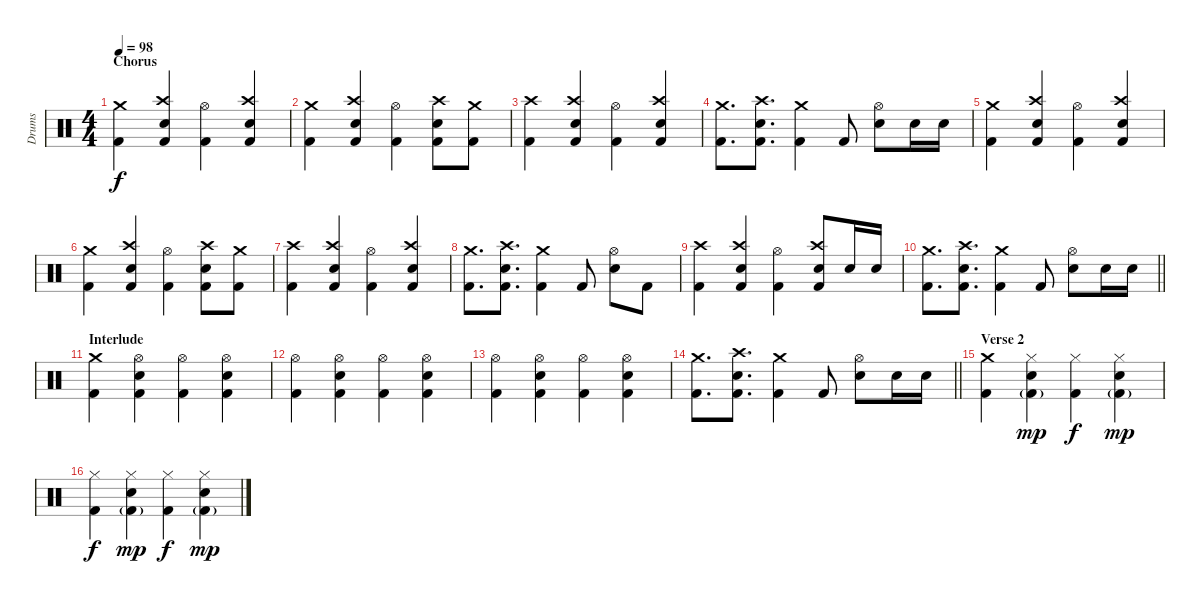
\track ("Drums" "Drums") {instrument percussion}
\staff {score}
\articulation defaults
\ts (4 4)
\section ("" "Chorus")
\tempo 98
\clef neutral
\ks c
("Crash medium (hit)" "Kick (hit) 2").4{dy f} ("Crash high (hit)" "Electric Snare (hit)" "Kick (hit) 2").4 ("Hi-Hat (open)" "Kick (hit) 2").4 ("Crash high (hit)" "Electric Snare (hit)" "Kick (hit) 2").4 |
("Crash medium (hit)" "Kick (hit) 2").4 ("Crash high (hit)" "Electric Snare (hit)" "Kick (hit) 2").4 ("Hi-Hat (open)" "Kick (hit) 2").4 ("Crash high (hit)" "Electric Snare (hit)" "Kick (hit) 2").8 ("Crash medium (hit)" "Kick (hit) 2").8 |
("Crash high (hit)" "Kick (hit) 2").4 ("Crash high (hit)" "Electric Snare (hit)" "Kick (hit) 2").4 ("Hi-Hat (open)" "Kick (hit) 2").4 ("Crash high (hit)" "Electric Snare (hit)" "Kick (hit) 2").4 |
("Crash medium (hit)" "Kick (hit) 2").8{d} ("Crash high (hit)" "Electric Snare (hit)" "Kick (hit) 2").8{d} ("Crash medium (hit)" "Kick (hit) 2").4 "Kick (hit) 2".8 ("Hi-Hat (open)" "Electric Snare (hit)").8 "Electric Snare (hit)".16 "Electric Snare (hit)".16 |
("Crash medium (hit)" "Kick (hit) 2").4 ("Crash high (hit)" "Electric Snare (hit)" "Kick (hit) 2").4 ("Hi-Hat (open)" "Kick (hit) 2").4 ("Crash high (hit)" "Electric Snare (hit)" "Kick (hit) 2").4 |
("Crash medium (hit)" "Kick (hit) 2").4 ("Crash high (hit)" "Electric Snare (hit)" "Kick (hit) 2").4 ("Hi-Hat (open)" "Kick (hit) 2").4 ("Crash high (hit)" "Electric Snare (hit)" "Kick (hit) 2").8 ("Crash medium (hit)" "Kick (hit) 2").8 |
("Crash high (hit)" "Kick (hit) 2").4 ("Crash high (hit)" "Electric Snare (hit)" "Kick (hit) 2").4 ("Hi-Hat (open)" "Kick (hit) 2").4 ("Crash high (hit)" "Electric Snare (hit)" "Kick (hit) 2").4 |
("Crash medium (hit)" "Kick (hit) 2").8{d} ("Crash high (hit)" "Electric Snare (hit)" "Kick (hit) 2").8{d} ("Crash medium (hit)" "Kick (hit) 2").4 "Kick (hit) 2".8 ("Hi-Hat (open)" "Electric Snare (hit)").8 "Kick (hit) 2".8 |
("Crash high (hit)" "Kick (hit) 2").4 ("Crash high (hit)" "Electric Snare (hit)" "Kick (hit) 2").4 ("Hi-Hat (open)" "Kick (hit) 2").4 ("Crash high (hit)" "Electric Snare (hit)" "Kick (hit) 2").8 "Electric Snare (hit)".16 "Electric Snare (hit)".16 |
\barLineRight lightlight
("Crash medium (hit)" "Kick (hit) 2").8{d} ("Crash high (hit)" "Electric Snare (hit)" "Kick (hit) 2").8{d} ("Crash medium (hit)" "Kick (hit) 2").4 "Kick (hit) 2".8 ("Hi-Hat (open)" "Electric Snare (hit)").8 "Electric Snare (hit)".16 "Electric Snare (hit)".16 |
\section ("" "Interlude")
("Crash medium (hit)" "Kick (hit) 2").4 ("Hi-Hat (open)" "Electric Snare (hit)" "Kick (hit) 2").4 ("Hi-Hat (open)" "Kick (hit) 2").4 ("Hi-Hat (open)" "Electric Snare (hit)" "Kick (hit) 2").4 |
("Hi-Hat (open)" "Kick (hit) 2").4 ("Hi-Hat (open)" "Electric Snare (hit)" "Kick (hit) 2").4 ("Hi-Hat (open)" "Kick (hit) 2").4 ("Hi-Hat (open)" "Electric Snare (hit)" "Kick (hit) 2").4 |
("Hi-Hat (open)" "Kick (hit) 2").4 ("Hi-Hat (open)" "Electric Snare (hit)" "Kick (hit) 2").4 ("Hi-Hat (open)" "Kick (hit) 2").4 ("Hi-Hat (open)" "Electric Snare (hit)" "Kick (hit) 2").4 |
\barLineRight lightlight
("Crash medium (hit)" "Kick (hit) 2").8{d} ("Crash high (hit)" "Electric Snare (hit)" "Kick (hit) 2").8{d} ("Crash medium (hit)" "Kick (hit) 2").4 "Kick (hit) 2".8 ("Hi-Hat (open)" "Electric Snare (hit)").8 "Electric Snare (hit)".16 "Electric Snare (hit)".16 |
\section ("" "Verse 2")
("Crash medium (hit)" "Kick (hit) 2").4 ("Hi-Hat (closed)" "Electric Snare (hit)" "Kick (hit) 2"{g}).4{dy mp} ("Hi-Hat (closed)" "Kick (hit) 2").4{dy f} ("Hi-Hat (closed)" "Electric Snare (hit)" "Kick (hit) 2"{g}).4{dy mp} |
("Hi-Hat (closed)" "Kick (hit) 2").4{dy f} ("Hi-Hat (closed)" "Electric Snare (hit)" "Kick (hit) 2"{g}).4{dy mp} ("Hi-Hat (closed)" "Kick (hit) 2").4{dy f} ("Hi-Hat (closed)" "Electric Snare (hit)" "Kick (hit) 2"{g}).4{dy mp}
